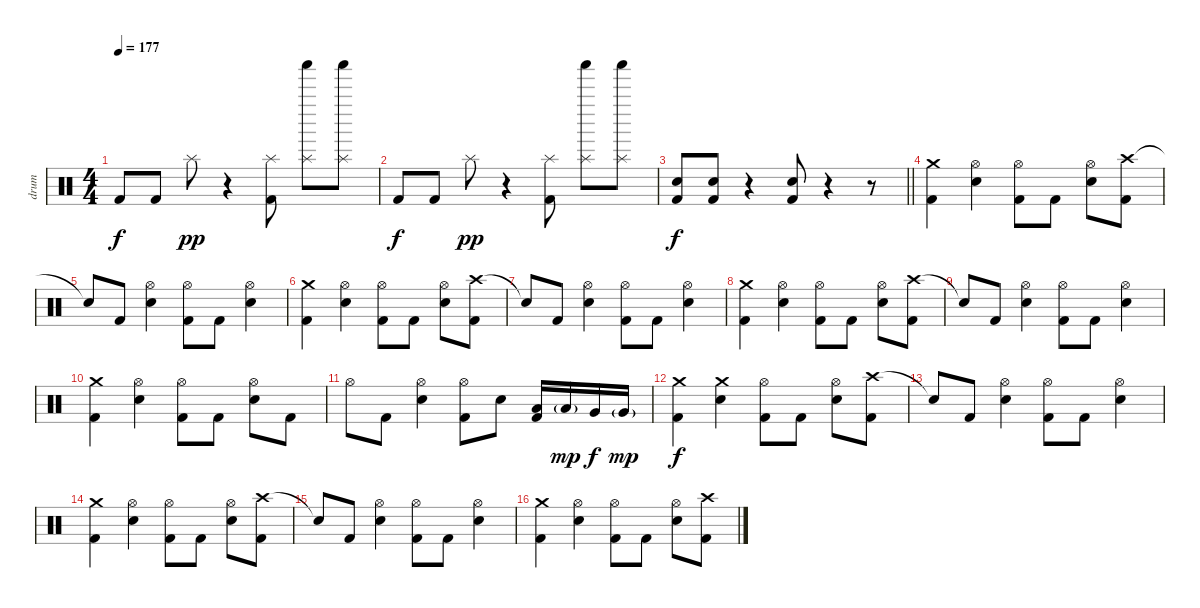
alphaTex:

\track ("drum" "drum") {instrument percussion}
\staff {score}
\articulation defaults
\ts (4 4)
\tempo 177
\clef neutral
\ks c "Kick (hit) 2".8{dy f} "Kick (hit) 2".8 "Splash (hit)".8{dy pp}
r.4 ("Splash (hit)" "Kick (hit) 2").8 ("Splash (hit)" "Shaker (hit)").8 ("Splash (hit)" "Shaker (hit)").8 |
"Kick (hit) 2".8{dy f} "Kick (hit) 2".8 "Splash (hit)".8{dy pp} r.4 ("Splash (hit)" "Kick (hit) 2").8 ("Splash (hit)" "Shaker (hit)").8 ("Splash (hit)" "Shaker (hit)").8 |
\barLineRight lightlight
("Electric Snare (hit)" "Kick (hit) 2").8{dy f} ("Electric Snare (hit)" "Kick (hit) 2").8 r.4 ("Electric Snare (hit)" "Kick (hit) 2").8 r.4 r.8 |
\section ("" "")
("Crash medium (hit)" "Kick (hit) 2").4 ("Hi-Hat (open)" "Electric Snare (hit)").4 ("Hi-Hat (open)" "Kick (hit) 2").8 "Kick (hit) 2".8 ("Hi-Hat (open)" "Electric Snare (hit)").8 ("Crash high (hit)" "Kick (hit) 2").8 |
"Snare (hit)"{t}.8 "Kick (hit) 2".8 ("Hi-Hat (open)" "Electric Snare (hit)").4 ("Hi-Hat (open)" "Kick (hit) 2").8 "Kick (hit) 2".8 ("Hi-Hat (open)" "Electric Snare (hit)").4 |
("Crash medium (hit)" "Kick (hit) 2").4 ("Hi-Hat (open)" "Electric Snare (hit)").4 ("Hi-Hat (open)" "Kick (hit) 2").8 "Kick (hit) 2".8 ("Hi-Hat (open)" "Electric Snare (hit)").8 ("Crash high (hit)" "Kick (hit) 2").8 |
"Snare (hit)"{t}.8 "Kick (hit) 2".8 ("Hi-Hat (open)" "Electric Snare (hit)").4 ("Hi-Hat (open)" "Kick (hit) 2").8 "Kick (hit) 2".8 ("Hi-Hat (open)" "Electric Snare (hit)").4 |
("Crash medium (hit)" "Kick (hit) 2").4 ("Hi-Hat (open)" "Electric Snare (hit)").4 ("Hi-Hat (open)" "Kick (hit) 2").8 "Kick (hit) 2".8 ("Hi-Hat (open)" "Electric Snare (hit)").8 ("Crash high (hit)" "Kick (hit) 2").8 |
"Snare (hit)"{t}.8 "Kick (hit) 2".8 ("Hi-Hat (open)" "Electric Snare (hit)").4 ("Hi-Hat (open)" "Kick (hit) 2").8 "Kick (hit) 2".8 ("Hi-Hat (open)" "Electric Snare (hit)").4 |
("Crash medium (hit)" "Kick (hit) 2").4 ("Hi-Hat (open)" "Electric Snare (hit)").4 ("Hi-Hat (open)" "Kick (hit) 2").8 "Kick (hit) 2".8 ("Hi-Hat (open)" "Electric Snare (hit)").8 "Kick (hit) 2".8 |
"Hi-Hat (open)".8 "Kick (hit) 2".8 ("Hi-Hat (open)" "Electric Snare (hit)").4 ("Hi-Hat (open)" "Kick (hit) 2").8 "Electric Snare (hit)".8 ("Low Tom (hit)" "Kick (hit) 2").16 "Low Tom (hit)"{g}.16{dy mp} "Very Low Tom (hit)".16{dy f} "Very Low Tom (hit)"{g}.16{dy mp} |
("Crash medium (hit)" "Kick (hit) 2").4{dy f} ("Crash medium (hit)" "Electric Snare (hit)").4 ("Hi-Hat (open)" "Kick (hit) 2").8 "Kick (hit) 2".8 ("Hi-Hat (open)" "Electric Snare (hit)").8 ("Crash high (hit)" "Kick (hit) 2").8 |
"Snare (hit)"{t}.8 "Kick (hit) 2".8 ("Hi-Hat (open)" "Electric Snare (hit)").4 ("Hi-Hat (open)" "Kick (hit) 2").8 "Kick (hit) 2".8 ("Hi-Hat (open)" "Electric Snare (hit)").4 |
("Crash medium (hit)" "Kick (hit) 2").4 ("Hi-Hat (open)" "Electric Snare (hit)").4 ("Hi-Hat (open)" "Kick (hit) 2").8 "Kick (hit) 2".8 ("Hi-Hat (open)" "Electric Snare (hit)").8 ("Crash high (hit)" "Kick (hit) 2").8 |
"Snare (hit)"{t}.8 "Kick (hit) 2".8 ("Hi-Hat (open)" "Electric Snare (hit)").4 ("Hi-Hat (open)" "Kick (hit) 2").8 "Kick (hit) 2".8 ("Hi-Hat (open)" "Electric Snare (hit)").4 |
("Crash medium (hit)" "Kick (hit) 2").4 ("Hi-Hat (open)" "Electric Snare (hit)").4 ("Hi-Hat (open)" "Kick (hit) 2").8 "Kick (hit) 2".8 ("Hi-Hat (open)" "Electric Snare (hit)").8 ("Crash high (hit)" "Kick (hit) 2").8
